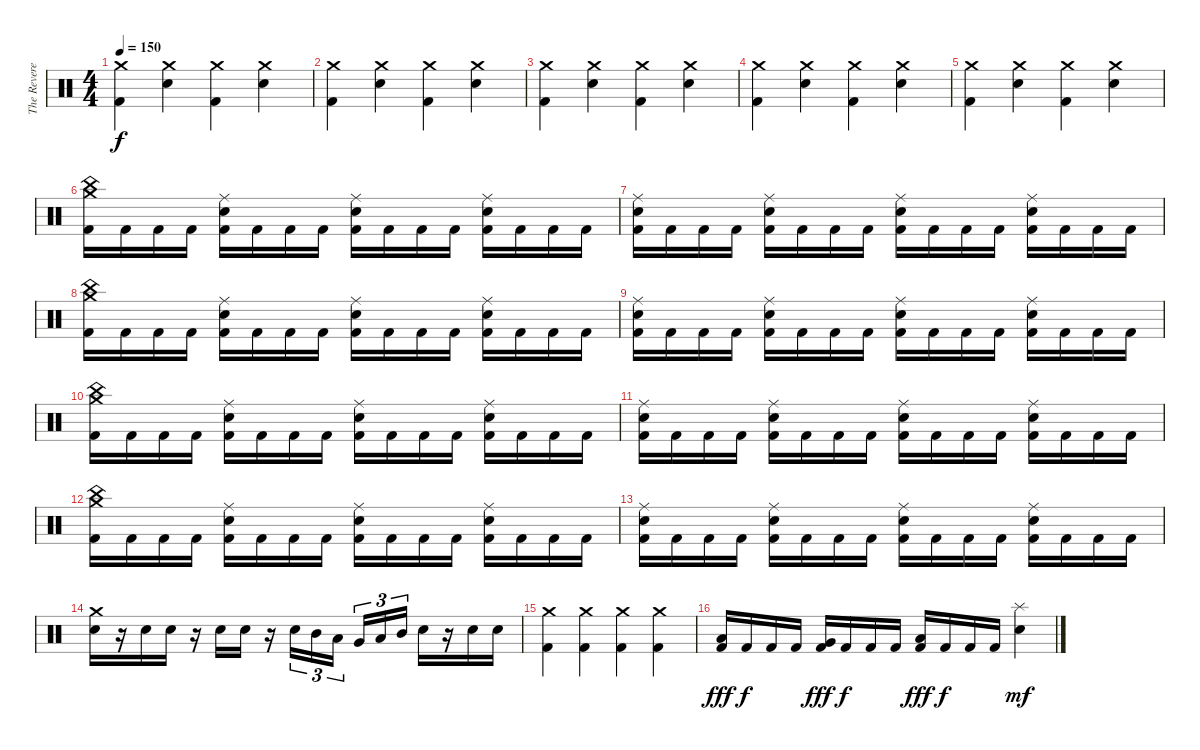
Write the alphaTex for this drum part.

\track ("The Reverend" "The Revere") {instrument percussion}
\staff {score}
\articulation defaults
\ts (4 4)
\tempo 150
\clef neutral
\ks c
("Crash medium (hit)" "Kick (hit) 2").4{dy f} ("Crash medium (hit)" "Electric Snare (hit)").4 ("Crash medium (hit)" "Kick (hit) 2").4 ("Crash medium (hit)" "Electric Snare (hit)").4 |
("Crash medium (hit)" "Kick (hit) 2").4 ("Crash medium (hit)" "Electric Snare (hit)").4 ("Crash medium (hit)" "Kick (hit) 2").4 ("Crash medium (hit)" "Electric Snare (hit)").4 |
("Crash medium (hit)" "Kick (hit) 2").4 ("Crash medium (hit)" "Electric Snare (hit)").4 ("Crash medium (hit)" "Kick (hit) 2").4 ("Crash medium (hit)" "Electric Snare (hit)").4 |
("Crash medium (hit)" "Kick (hit) 2").4 ("Crash medium (hit)" "Electric Snare (hit)").4 ("Crash medium (hit)" "Kick (hit) 2").4 ("Crash medium (hit)" "Electric Snare (hit)").4 |
("Crash medium (hit)" "Kick (hit) 2").4 ("Crash medium (hit)" "Electric Snare (hit)").4 ("Crash medium (hit)" "Kick (hit) 2").4 ("Crash medium (hit)" "Electric Snare (hit)").4 |
("Crash medium (hit)" "China (hit)" "Kick (hit) 2").16 "Kick (hit) 2".16 "Kick (hit) 2".16 "Kick (hit) 2".16 ("Ride (middle)" "Electric Snare (hit)" "Kick (hit) 2").16 "Kick (hit) 2".16 "Kick (hit) 2".16 "Kick (hit) 2".16 ("Ride (middle)" "Electric Snare (hit)" "Kick (hit) 2").16 "Kick (hit) 2".16 "Kick (hit) 2".16 "Kick (hit) 2".16 ("Ride (middle)" "Electric Snare (hit)" "Kick (hit) 2").16 "Kick (hit) 2".16 "Kick (hit) 2".16 "Kick (hit) 2".16 |
("Ride (middle)" "Electric Snare (hit)" "Kick (hit) 2").16 "Kick (hit) 2".16 "Kick (hit) 2".16 "Kick (hit) 2".16 ("Ride (middle)" "Electric Snare (hit)" "Kick (hit) 2").16 "Kick (hit) 2".16 "Kick (hit) 2".16 "Kick (hit) 2".16 ("Ride (middle)" "Electric Snare (hit)" "Kick (hit) 2").16 "Kick (hit) 2".16 "Kick (hit) 2".16 "Kick (hit) 2".16 ("Ride (middle)" "Electric Snare (hit)" "Kick (hit) 2").16 "Kick (hit) 2".16 "Kick (hit) 2".16 "Kick (hit) 2".16 |
("Crash medium (hit)" "China (hit)" "Kick (hit) 2").16 "Kick (hit) 2".16 "Kick (hit) 2".16 "Kick (hit) 2".16 ("Ride (middle)" "Electric Snare (hit)" "Kick (hit) 2").16 "Kick (hit) 2".16 "Kick (hit) 2".16 "Kick (hit) 2".16 ("Ride (middle)" "Electric Snare (hit)" "Kick (hit) 2").16 "Kick (hit) 2".16 "Kick (hit) 2".16 "Kick (hit) 2".16 ("Ride (middle)" "Electric Snare (hit)" "Kick (hit) 2").16 "Kick (hit) 2".16 "Kick (hit) 2".16 "Kick (hit) 2".16 |
("Ride (middle)" "Electric Snare (hit)" "Kick (hit) 2").16 "Kick (hit) 2".16 "Kick (hit) 2".16 "Kick (hit) 2".16 ("Ride (middle)" "Electric Snare (hit)" "Kick (hit) 2").16 "Kick (hit) 2".16 "Kick (hit) 2".16 "Kick (hit) 2".16 ("Ride (middle)" "Electric Snare (hit)" "Kick (hit) 2").16 "Kick (hit) 2".16 "Kick (hit) 2".16 "Kick (hit) 2".16 ("Ride (middle)" "Electric Snare (hit)" "Kick (hit) 2").16 "Kick (hit) 2".16 "Kick (hit) 2".16 "Kick (hit) 2".16 |
("Crash medium (hit)" "China (hit)" "Kick (hit) 2").16 "Kick (hit) 2".16 "Kick (hit) 2".16 "Kick (hit) 2".16 ("Ride (middle)" "Electric Snare (hit)" "Kick (hit) 2").16 "Kick (hit) 2".16 "Kick (hit) 2".16 "Kick (hit) 2".16 ("Ride (middle)" "Electric Snare (hit)" "Kick (hit) 2").16 "Kick (hit) 2".16 "Kick (hit) 2".16 "Kick (hit) 2".16 ("Ride (middle)" "Electric Snare (hit)" "Kick (hit) 2").16 "Kick (hit) 2".16 "Kick (hit) 2".16 "Kick (hit) 2".16 |
("Ride (middle)" "Electric Snare (hit)" "Kick (hit) 2").16 "Kick (hit) 2".16 "Kick (hit) 2".16 "Kick (hit) 2".16 ("Ride (middle)" "Electric Snare (hit)" "Kick (hit) 2").16 "Kick (hit) 2".16 "Kick (hit) 2".16 "Kick (hit) 2".16 ("Ride (middle)" "Electric Snare (hit)" "Kick (hit) 2").16 "Kick (hit) 2".16 "Kick (hit) 2".16 "Kick (hit) 2".16 ("Ride (middle)" "Electric Snare (hit)" "Kick (hit) 2").16 "Kick (hit) 2".16 "Kick (hit) 2".16 "Kick (hit) 2".16 |
("Crash medium (hit)" "China (hit)" "Kick (hit) 2").16 "Kick (hit) 2".16 "Kick (hit) 2".16 "Kick (hit) 2".16 ("Ride (middle)" "Electric Snare (hit)" "Kick (hit) 2").16 "Kick (hit) 2".16 "Kick (hit) 2".16 "Kick (hit) 2".16 ("Ride (middle)" "Electric Snare (hit)" "Kick (hit) 2").16 "Kick (hit) 2".16 "Kick (hit) 2".16 "Kick (hit) 2".16 ("Ride (middle)" "Electric Snare (hit)" "Kick (hit) 2").16 "Kick (hit) 2".16 "Kick (hit) 2".16 "Kick (hit) 2".16 |
("Ride (middle)" "Electric Snare (hit)" "Kick (hit) 2").16 "Kick (hit) 2".16 "Kick (hit) 2".16 "Kick (hit) 2".16 ("Ride (middle)" "Electric Snare (hit)" "Kick (hit) 2").16 "Kick (hit) 2".16 "Kick (hit) 2".16 "Kick (hit) 2".16 ("Ride (middle)" "Electric Snare (hit)" "Kick (hit) 2").16 "Kick (hit) 2".16 "Kick (hit) 2".16 "Kick (hit) 2".16 ("Ride (middle)" "Electric Snare (hit)" "Kick (hit) 2").16 "Kick (hit) 2".16 "Kick (hit) 2".16 "Kick (hit) 2".16 |
("Crash medium (hit)" "Electric Snare (hit)").16 r.16 "Electric Snare (hit)".16 "Electric Snare (hit)".16 r.16 "Electric Snare (hit)".16 "Electric Snare (hit)".16 r.16 "Electric Snare (hit)".16{tu (3 2)} "Mid Tom (hit)".16{tu (3 2)} "Low Tom (hit)".16{tu (3 2)} "Very Low Tom (hit)".16{tu (3 2)} "Low Tom (hit)".16{tu (3 2)} "Mid Tom (hit)".16{tu (3 2)} "Electric Snare (hit)".16 r.16 "Electric Snare (hit)".16 "Electric Snare (hit)".16 |
("Crash medium (hit)" "Kick (hit) 2").4 ("Crash medium (hit)" "Kick (hit) 2").4 ("Crash medium (hit)" "Kick (hit) 2").4 ("Crash medium (hit)" "Kick (hit) 2").4 |
("Low Floor Tom (hit)" "Kick (hit) 2").16{dy fff} "Kick (hit) 2".16{dy f} "Kick (hit) 2".16 "Kick (hit) 2".16 ("Very Low Tom (hit)" "Kick (hit) 2").16{dy fff} "Kick (hit) 2".16{dy f} "Kick (hit) 2".16 "Kick (hit) 2".16 ("Low Tom (hit)" "Kick (hit) 2").16{dy fff} "Kick (hit) 2".16{dy f} "Kick (hit) 2".16 "Kick (hit) 2".16 ("Splash (hit)" "Electric Snare (hit)").4{dy mf}
